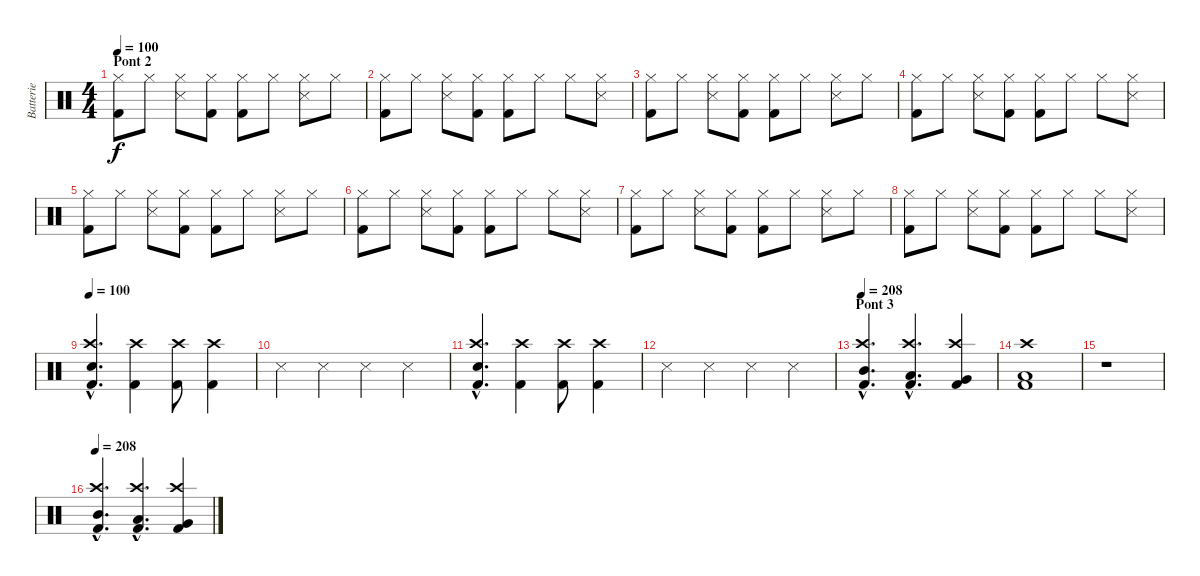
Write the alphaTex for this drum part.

\track ("Batterie" "Batterie") {instrument percussion}
\staff {score}
\articulation defaults
\ts (4 4)
\section ("" "Pont 2")
\tempo 100
\clef neutral
\ks c
("Hi-Hat (closed)" "Kick (hit) 2").8{dy f} "Hi-Hat (closed)".8 ("Hi-Hat (closed)" "Snare (side stick) 3").8 ("Hi-Hat (closed)" "Kick (hit) 2").8 ("Hi-Hat (closed)" "Kick (hit) 2").8 "Hi-Hat (closed)".8 ("Hi-Hat (closed)" "Snare (side stick) 3").8 "Hi-Hat (closed)".8 |
("Hi-Hat (closed)" "Kick (hit) 2").8 "Hi-Hat (closed)".8 ("Hi-Hat (closed)" "Snare (side stick) 3").8 ("Hi-Hat (closed)" "Kick (hit) 2").8 ("Hi-Hat (closed)" "Kick (hit) 2").8 "Hi-Hat (closed)".8 "Hi-Hat (closed)".8 ("Hi-Hat (closed)" "Snare (side stick) 3").8 |
("Hi-Hat (closed)" "Kick (hit) 2").8 "Hi-Hat (closed)".8 ("Hi-Hat (closed)" "Snare (side stick) 3").8 ("Hi-Hat (closed)" "Kick (hit) 2").8 ("Hi-Hat (closed)" "Kick (hit) 2").8 "Hi-Hat (closed)".8 ("Hi-Hat (closed)" "Snare (side stick) 3").8 "Hi-Hat (closed)".8 |
("Hi-Hat (closed)" "Kick (hit) 2").8 "Hi-Hat (closed)".8 ("Hi-Hat (closed)" "Snare (side stick) 3").8 ("Hi-Hat (closed)" "Kick (hit) 2").8 ("Hi-Hat (closed)" "Kick (hit) 2").8 "Hi-Hat (closed)".8 "Hi-Hat (closed)".8 ("Hi-Hat (closed)" "Snare (side stick) 3").8 |
("Hi-Hat (closed)" "Kick (hit) 2").8 "Hi-Hat (closed)".8 ("Hi-Hat (closed)" "Snare (side stick) 3").8 ("Hi-Hat (closed)" "Kick (hit) 2").8 ("Hi-Hat (closed)" "Kick (hit) 2").8 "Hi-Hat (closed)".8 ("Hi-Hat (closed)" "Snare (side stick) 3").8 "Hi-Hat (closed)".8 |
("Hi-Hat (closed)" "Kick (hit) 2").8 "Hi-Hat (closed)".8 ("Hi-Hat (closed)" "Snare (side stick) 3").8 ("Hi-Hat (closed)" "Kick (hit) 2").8 ("Hi-Hat (closed)" "Kick (hit) 2").8 "Hi-Hat (closed)".8 "Hi-Hat (closed)".8 ("Hi-Hat (closed)" "Snare (side stick) 3").8 |
("Hi-Hat (closed)" "Kick (hit) 2").8 "Hi-Hat (closed)".8 ("Hi-Hat (closed)" "Snare (side stick) 3").8 ("Hi-Hat (closed)" "Kick (hit) 2").8 ("Hi-Hat (closed)" "Kick (hit) 2").8 "Hi-Hat (closed)".8 ("Hi-Hat (closed)" "Snare (side stick) 3").8 "Hi-Hat (closed)".8 |
("Hi-Hat (closed)" "Kick (hit) 2").8 "Hi-Hat (closed)".8 ("Hi-Hat (closed)" "Snare (side stick) 3").8 ("Hi-Hat (closed)" "Kick (hit) 2").8 ("Hi-Hat (closed)" "Kick (hit) 2").8 "Hi-Hat (closed)".8 "Hi-Hat (closed)".8 ("Hi-Hat (closed)" "Snare (side stick) 3").8 |
\tempo 100
("Crash high (hit)"{hac} "Snare (hit) 2"{hac} "Kick (hit) 2"{hac}).4{d} ("Crash high (hit)" "Kick (hit) 2").4 ("Crash high (hit)" "Kick (hit) 2").8 ("Crash high (hit)" "Kick (hit) 2").4 |
"Snare (side stick) 3".4 "Snare (side stick) 3".4 "Snare (side stick) 3".4 "Snare (side stick) 3".4 |
("Crash high (hit)"{hac} "Snare (hit) 2"{hac} "Kick (hit) 2"{hac}).4{d} ("Crash high (hit)" "Kick (hit) 2").4 ("Crash high (hit)" "Kick (hit) 2").8 ("Crash high (hit)" "Kick (hit) 2").4 |
"Snare (side stick) 3".4 "Snare (side stick) 3".4 "Snare (side stick) 3".4 "Snare (side stick) 3".4 |
\section ("" "Pont 3")
\tempo 208
("Crash high (hit)"{hac} "Mid Tom (hit)"{hac} "Kick (hit) 2"{hac}).4{d} ("Crash high (hit)"{hac} "Low Tom (hit)"{hac} "Kick (hit) 2"{hac}).4{d} ("Crash high (hit)" "Very Low Tom (hit)" "Kick (hit) 2").4 |
("Crash high (hit)" "Low Floor Tom (hit)" "Kick (hit) 2").1 |
r.1 |
\tempo 208
("Crash high (hit)"{hac} "Mid Tom (hit)"{hac} "Kick (hit) 2"{hac}).4{d} ("Crash high (hit)"{hac} "Low Tom (hit)"{hac} "Kick (hit) 2"{hac}).4{d} ("Crash high (hit)" "Very Low Tom (hit)" "Kick (hit) 2").4
